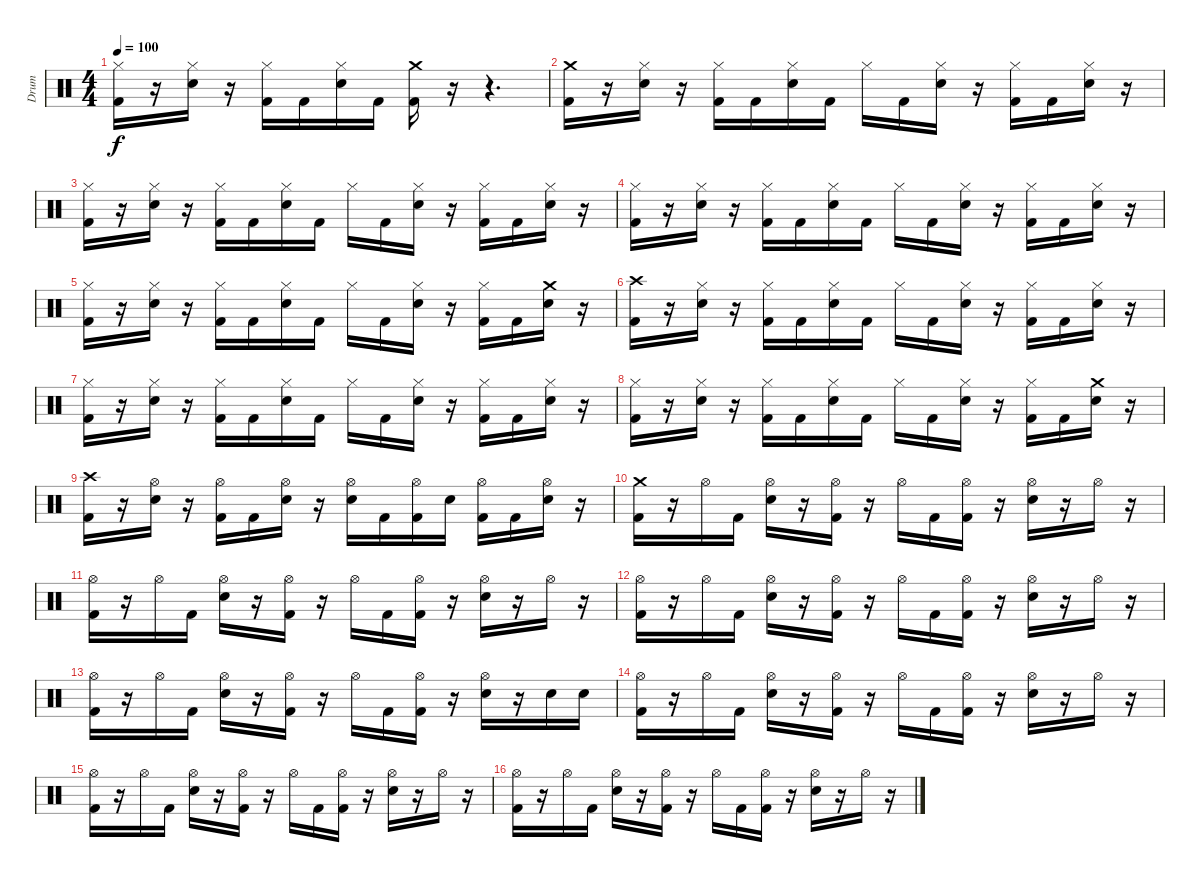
\track ("Drum" "Drum") {instrument percussion}
\staff {score}
\articulation defaults
\ts (4 4)
\tempo 100
\clef neutral
\ks c
("Hi-Hat (closed)" "Kick (hit) 2").16{dy f} r.16 ("Hi-Hat (closed)" "Electric Snare (hit)").16 r.16 ("Hi-Hat (closed)" "Kick (hit) 2").16 "Kick (hit) 2".16 ("Hi-Hat (closed)" "Electric Snare (hit)").16 "Kick (hit) 2".16 ("Crash medium (hit)" "Kick (hit) 2").16 r.16 r.4{d} |
("Crash medium (hit)" "Kick (hit) 2").16 r.16 ("Hi-Hat (closed)" "Electric Snare (hit)").16 r.16 ("Hi-Hat (closed)" "Kick (hit) 2").16 "Kick (hit) 2".16 ("Hi-Hat (closed)" "Electric Snare (hit)").16 "Kick (hit) 2".16 "Hi-Hat (closed)".16 "Kick (hit) 2".16 ("Hi-Hat (closed)" "Electric Snare (hit)").16 r.16 ("Hi-Hat (closed)" "Kick (hit) 2").16 "Kick (hit) 2".16 ("Hi-Hat (closed)" "Electric Snare (hit)").16 r.16 |
("Hi-Hat (closed)" "Kick (hit) 2").16 r.16 ("Hi-Hat (closed)" "Electric Snare (hit)").16 r.16 ("Hi-Hat (closed)" "Kick (hit) 2").16 "Kick (hit) 2".16 ("Hi-Hat (closed)" "Electric Snare (hit)").16 "Kick (hit) 2".16 "Hi-Hat (closed)".16 "Kick (hit) 2".16 ("Hi-Hat (closed)" "Electric Snare (hit)").16 r.16 ("Hi-Hat (closed)" "Kick (hit) 2").16 "Kick (hit) 2".16 ("Hi-Hat (closed)" "Electric Snare (hit)").16 r.16 |
("Hi-Hat (closed)" "Kick (hit) 2").16 r.16 ("Hi-Hat (closed)" "Electric Snare (hit)").16 r.16 ("Hi-Hat (closed)" "Kick (hit) 2").16 "Kick (hit) 2".16 ("Hi-Hat (closed)" "Electric Snare (hit)").16 "Kick (hit) 2".16 "Hi-Hat (closed)".16 "Kick (hit) 2".16 ("Hi-Hat (closed)" "Electric Snare (hit)").16 r.16 ("Hi-Hat (closed)" "Kick (hit) 2").16 "Kick (hit) 2".16 ("Hi-Hat (closed)" "Electric Snare (hit)").16 r.16 |
("Hi-Hat (closed)" "Kick (hit) 2").16 r.16 ("Hi-Hat (closed)" "Electric Snare (hit)").16 r.16 ("Hi-Hat (closed)" "Kick (hit) 2").16 "Kick (hit) 2".16 ("Hi-Hat (closed)" "Electric Snare (hit)").16 "Kick (hit) 2".16 "Hi-Hat (closed)".16 "Kick (hit) 2".16 ("Hi-Hat (closed)" "Electric Snare (hit)").16 r.16 ("Hi-Hat (closed)" "Kick (hit) 2").16 "Kick (hit) 2".16 ("Crash medium (hit)" "Electric Snare (hit)").16 r.16 |
("Crash high (hit)" "Kick (hit) 2").16 r.16 ("Hi-Hat (closed)" "Electric Snare (hit)").16 r.16 ("Hi-Hat (closed)" "Kick (hit) 2").16 "Kick (hit) 2".16 ("Hi-Hat (closed)" "Electric Snare (hit)").16 "Kick (hit) 2".16 "Hi-Hat (closed)".16 "Kick (hit) 2".16 ("Hi-Hat (closed)" "Electric Snare (hit)").16 r.16 ("Hi-Hat (closed)" "Kick (hit) 2").16 "Kick (hit) 2".16 ("Hi-Hat (closed)" "Electric Snare (hit)").16 r.16 |
("Hi-Hat (closed)" "Kick (hit) 2").16 r.16 ("Hi-Hat (closed)" "Electric Snare (hit)").16 r.16 ("Hi-Hat (closed)" "Kick (hit) 2").16 "Kick (hit) 2".16 ("Hi-Hat (closed)" "Electric Snare (hit)").16 "Kick (hit) 2".16 "Hi-Hat (closed)".16 "Kick (hit) 2".16 ("Hi-Hat (closed)" "Electric Snare (hit)").16 r.16 ("Hi-Hat (closed)" "Kick (hit) 2").16 "Kick (hit) 2".16 ("Hi-Hat (closed)" "Electric Snare (hit)").16 r.16 |
("Hi-Hat (closed)" "Kick (hit) 2").16 r.16 ("Hi-Hat (closed)" "Electric Snare (hit)").16 r.16 ("Hi-Hat (closed)" "Kick (hit) 2").16 "Kick (hit) 2".16 ("Hi-Hat (closed)" "Electric Snare (hit)").16 "Kick (hit) 2".16 "Hi-Hat (closed)".16 "Kick (hit) 2".16 ("Hi-Hat (closed)" "Electric Snare (hit)").16 r.16 ("Hi-Hat (closed)" "Kick (hit) 2").16 "Kick (hit) 2".16 ("Crash medium (hit)" "Electric Snare (hit)").16 r.16 |
("Crash high (hit)" "Kick (hit) 2").16 r.16 ("Hi-Hat (open)" "Electric Snare (hit)").16 r.16 ("Hi-Hat (open)" "Kick (hit) 2").16 "Kick (hit) 2".16 ("Hi-Hat (open)" "Electric Snare (hit)").16 r.16 ("Hi-Hat (open)" "Electric Snare (hit)").16 "Kick (hit) 2".16 ("Hi-Hat (open)" "Kick (hit) 2").16 "Electric Snare (hit)".16 ("Hi-Hat (open)" "Kick (hit) 2").16 "Kick (hit) 2".16 ("Hi-Hat (open)" "Electric Snare (hit)").16 r.16 |
("Crash medium (hit)" "Kick (hit) 2").16 r.16 "Hi-Hat (open)".16 "Kick (hit) 2".16 ("Hi-Hat (open)" "Electric Snare (hit)").16 r.16 ("Hi-Hat (open)" "Kick (hit) 2").16 r.16 "Hi-Hat (open)".16 "Kick (hit) 2".16 ("Hi-Hat (open)" "Kick (hit) 2").16 r.16 ("Hi-Hat (open)" "Electric Snare (hit)").16 r.16 "Hi-Hat (open)".16 r.16 |
("Hi-Hat (open)" "Kick (hit) 2").16 r.16 "Hi-Hat (open)".16 "Kick (hit) 2".16 ("Hi-Hat (open)" "Electric Snare (hit)").16 r.16 ("Hi-Hat (open)" "Kick (hit) 2").16 r.16 "Hi-Hat (open)".16 "Kick (hit) 2".16 ("Hi-Hat (open)" "Kick (hit) 2").16 r.16 ("Hi-Hat (open)" "Electric Snare (hit)").16 r.16 "Hi-Hat (open)".16 r.16 |
("Hi-Hat (open)" "Kick (hit) 2").16 r.16 "Hi-Hat (open)".16 "Kick (hit) 2".16 ("Hi-Hat (open)" "Electric Snare (hit)").16 r.16 ("Hi-Hat (open)" "Kick (hit) 2").16 r.16 "Hi-Hat (open)".16 "Kick (hit) 2".16 ("Hi-Hat (open)" "Kick (hit) 2").16 r.16 ("Hi-Hat (open)" "Electric Snare (hit)").16 r.16 "Hi-Hat (open)".16 r.16 |
("Hi-Hat (open)" "Kick (hit) 2").16 r.16 "Hi-Hat (open)".16 "Kick (hit) 2".16 ("Hi-Hat (open)" "Electric Snare (hit)").16 r.16 ("Hi-Hat (open)" "Kick (hit) 2").16 r.16 "Hi-Hat (open)".16 "Kick (hit) 2".16 ("Hi-Hat (open)" "Kick (hit) 2").16 r.16 ("Hi-Hat (open)" "Electric Snare (hit)").16 r.16 "Electric Snare (hit)".16 "Electric Snare (hit)".16 |
("Hi-Hat (open)" "Kick (hit) 2").16 r.16 "Hi-Hat (open)".16 "Kick (hit) 2".16 ("Hi-Hat (open)" "Electric Snare (hit)").16 r.16 ("Hi-Hat (open)" "Kick (hit) 2").16 r.16 "Hi-Hat (open)".16 "Kick (hit) 2".16 ("Hi-Hat (open)" "Kick (hit) 2").16 r.16 ("Hi-Hat (open)" "Electric Snare (hit)").16 r.16 "Hi-Hat (open)".16 r.16 |
("Hi-Hat (open)" "Kick (hit) 2").16 r.16 "Hi-Hat (open)".16 "Kick (hit) 2".16 ("Hi-Hat (open)" "Electric Snare (hit)").16 r.16 ("Hi-Hat (open)" "Kick (hit) 2").16 r.16 "Hi-Hat (open)".16 "Kick (hit) 2".16 ("Hi-Hat (open)" "Kick (hit) 2").16 r.16 ("Hi-Hat (open)" "Electric Snare (hit)").16 r.16 "Hi-Hat (open)".16 r.16 |
("Hi-Hat (open)" "Kick (hit) 2").16 r.16 "Hi-Hat (open)".16 "Kick (hit) 2".16 ("Hi-Hat (open)" "Electric Snare (hit)").16 r.16 ("Hi-Hat (open)" "Kick (hit) 2").16 r.16 "Hi-Hat (open)".16 "Kick (hit) 2".16 ("Hi-Hat (open)" "Kick (hit) 2").16 r.16 ("Hi-Hat (open)" "Electric Snare (hit)").16 r.16 "Hi-Hat (open)".16 r.16
